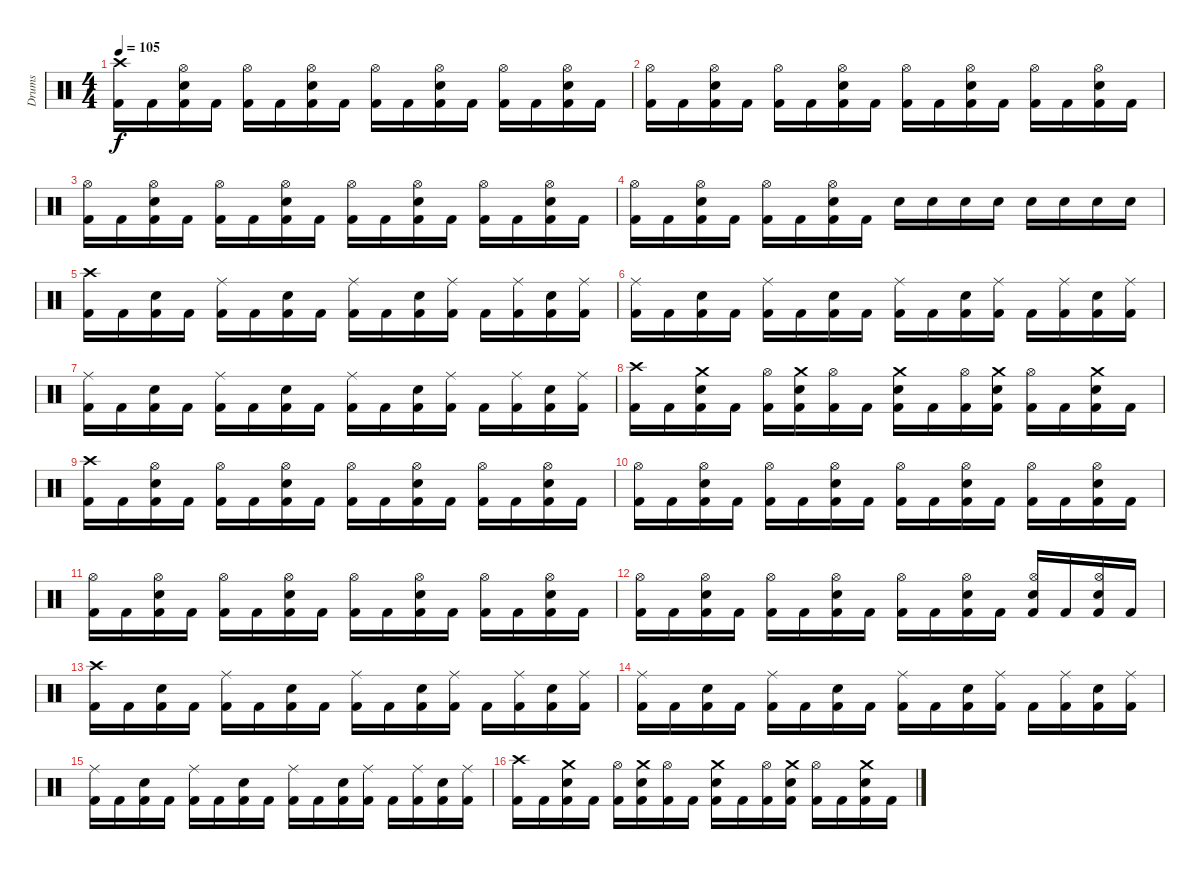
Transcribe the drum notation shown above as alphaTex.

\track ("Drums" "Drums") {instrument percussion}
\staff {score}
\articulation defaults
\ts (4 4)
\tempo 105
\clef neutral
\ks c
("Crash high (hit)" "Kick (hit) 2").16{dy f} "Kick (hit) 2".16 ("Hi-Hat (open)" "Electric Snare (hit)" "Kick (hit) 2").16 "Kick (hit) 2".16 ("Hi-Hat (open)" "Kick (hit) 2").16 "Kick (hit) 2".16 ("Hi-Hat (open)" "Electric Snare (hit)" "Kick (hit) 2").16 "Kick (hit) 2".16 ("Hi-Hat (open)" "Kick (hit) 2").16 "Kick (hit) 2".16 ("Hi-Hat (open)" "Electric Snare (hit)" "Kick (hit) 2").16 "Kick (hit) 2".16 ("Hi-Hat (open)" "Kick (hit) 2").16 "Kick (hit) 2".16 ("Hi-Hat (open)" "Electric Snare (hit)" "Kick (hit) 2").16 "Kick (hit) 2".16 |
("Hi-Hat (open)" "Kick (hit) 2").16 "Kick (hit) 2".16 ("Hi-Hat (open)" "Electric Snare (hit)" "Kick (hit) 2").16 "Kick (hit) 2".16 ("Hi-Hat (open)" "Kick (hit) 2").16 "Kick (hit) 2".16 ("Hi-Hat (open)" "Electric Snare (hit)" "Kick (hit) 2").16 "Kick (hit) 2".16 ("Hi-Hat (open)" "Kick (hit) 2").16 "Kick (hit) 2".16 ("Hi-Hat (open)" "Electric Snare (hit)" "Kick (hit) 2").16 "Kick (hit) 2".16 ("Hi-Hat (open)" "Kick (hit) 2").16 "Kick (hit) 2".16 ("Hi-Hat (open)" "Electric Snare (hit)" "Kick (hit) 2").16 "Kick (hit) 2".16 |
("Hi-Hat (open)" "Kick (hit) 2").16 "Kick (hit) 2".16 ("Hi-Hat (open)" "Electric Snare (hit)" "Kick (hit) 2").16 "Kick (hit) 2".16 ("Hi-Hat (open)" "Kick (hit) 2").16 "Kick (hit) 2".16 ("Hi-Hat (open)" "Electric Snare (hit)" "Kick (hit) 2").16 "Kick (hit) 2".16 ("Hi-Hat (open)" "Kick (hit) 2").16 "Kick (hit) 2".16 ("Hi-Hat (open)" "Electric Snare (hit)" "Kick (hit) 2").16 "Kick (hit) 2".16 ("Hi-Hat (open)" "Kick (hit) 2").16 "Kick (hit) 2".16 ("Hi-Hat (open)" "Electric Snare (hit)" "Kick (hit) 2").16 "Kick (hit) 2".16 |
("Hi-Hat (open)" "Kick (hit) 2").16 "Kick (hit) 2".16 ("Hi-Hat (open)" "Electric Snare (hit)" "Kick (hit) 2").16 "Kick (hit) 2".16 ("Hi-Hat (open)" "Kick (hit) 2").16 "Kick (hit) 2".16 ("Hi-Hat (open)" "Electric Snare (hit)" "Kick (hit) 2").16 "Kick (hit) 2".16 "Electric Snare (hit)".16 "Electric Snare (hit)".16 "Electric Snare (hit)".16 "Electric Snare (hit)".16 "Electric Snare (hit)".16 "Electric Snare (hit)".16 "Electric Snare (hit)".16 "Electric Snare (hit)".16 |
("Crash high (hit)" "Kick (hit) 2").16 "Kick (hit) 2".16 ("Electric Snare (hit)" "Kick (hit) 2").16 "Kick (hit) 2".16 ("Ride (middle)" "Kick (hit) 2").16 "Kick (hit) 2".16 ("Electric Snare (hit)" "Kick (hit) 2").16 "Kick (hit) 2".16 ("Ride (middle)" "Kick (hit) 2").16 "Kick (hit) 2".16 ("Electric Snare (hit)" "Kick (hit) 2").16 ("Ride (middle)" "Kick (hit) 2").16 "Kick (hit) 2".16 ("Ride (middle)" "Kick (hit) 2").16 ("Electric Snare (hit)" "Kick (hit) 2").16 ("Ride (middle)" "Kick (hit) 2").16 |
("Ride (middle)" "Kick (hit) 2").16 "Kick (hit) 2".16 ("Electric Snare (hit)" "Kick (hit) 2").16 "Kick (hit) 2".16 ("Ride (middle)" "Kick (hit) 2").16 "Kick (hit) 2".16 ("Electric Snare (hit)" "Kick (hit) 2").16 "Kick (hit) 2".16 ("Ride (middle)" "Kick (hit) 2").16 "Kick (hit) 2".16 ("Electric Snare (hit)" "Kick (hit) 2").16 ("Ride (middle)" "Kick (hit) 2").16 "Kick (hit) 2".16 ("Ride (middle)" "Kick (hit) 2").16 ("Electric Snare (hit)" "Kick (hit) 2").16 ("Ride (middle)" "Kick (hit) 2").16 |
("Ride (middle)" "Kick (hit) 2").16 "Kick (hit) 2".16 ("Electric Snare (hit)" "Kick (hit) 2").16 "Kick (hit) 2".16 ("Ride (middle)" "Kick (hit) 2").16 "Kick (hit) 2".16 ("Electric Snare (hit)" "Kick (hit) 2").16 "Kick (hit) 2".16 ("Ride (middle)" "Kick (hit) 2").16 "Kick (hit) 2".16 ("Electric Snare (hit)" "Kick (hit) 2").16 ("Ride (middle)" "Kick (hit) 2").16 "Kick (hit) 2".16 ("Ride (middle)" "Kick (hit) 2").16 ("Electric Snare (hit)" "Kick (hit) 2").16 ("Ride (middle)" "Kick (hit) 2").16 |
("Crash high (hit)" "Kick (hit) 2").16 "Kick (hit) 2".16 ("Crash medium (hit)" "Electric Snare (hit)" "Kick (hit) 2").16 "Kick (hit) 2".16 ("Hi-Hat (open)" "Kick (hit) 2").16 ("Crash medium (hit)" "Electric Snare (hit)" "Kick (hit) 2").16 ("Hi-Hat (open)" "Kick (hit) 2").16 "Kick (hit) 2".16 ("Crash medium (hit)" "Electric Snare (hit)" "Kick (hit) 2").16 "Kick (hit) 2".16 ("Hi-Hat (open)" "Kick (hit) 2").16 ("Crash medium (hit)" "Electric Snare (hit)" "Kick (hit) 2").16 ("Hi-Hat (open)" "Kick (hit) 2").16 "Kick (hit) 2".16 ("Crash medium (hit)" "Electric Snare (hit)" "Kick (hit) 2").16 "Kick (hit) 2".16 |
("Crash high (hit)" "Kick (hit) 2").16 "Kick (hit) 2".16 ("Hi-Hat (open)" "Electric Snare (hit)" "Kick (hit) 2").16 "Kick (hit) 2".16 ("Hi-Hat (open)" "Kick (hit) 2").16 "Kick (hit) 2".16 ("Hi-Hat (open)" "Electric Snare (hit)" "Kick (hit) 2").16 "Kick (hit) 2".16 ("Hi-Hat (open)" "Kick (hit) 2").16 "Kick (hit) 2".16 ("Hi-Hat (open)" "Electric Snare (hit)" "Kick (hit) 2").16 "Kick (hit) 2".16 ("Hi-Hat (open)" "Kick (hit) 2").16 "Kick (hit) 2".16 ("Hi-Hat (open)" "Electric Snare (hit)" "Kick (hit) 2").16 "Kick (hit) 2".16 |
("Hi-Hat (open)" "Kick (hit) 2").16 "Kick (hit) 2".16 ("Hi-Hat (open)" "Electric Snare (hit)" "Kick (hit) 2").16 "Kick (hit) 2".16 ("Hi-Hat (open)" "Kick (hit) 2").16 "Kick (hit) 2".16 ("Hi-Hat (open)" "Electric Snare (hit)" "Kick (hit) 2").16 "Kick (hit) 2".16 ("Hi-Hat (open)" "Kick (hit) 2").16 "Kick (hit) 2".16 ("Hi-Hat (open)" "Electric Snare (hit)" "Kick (hit) 2").16 "Kick (hit) 2".16 ("Hi-Hat (open)" "Kick (hit) 2").16 "Kick (hit) 2".16 ("Hi-Hat (open)" "Electric Snare (hit)" "Kick (hit) 2").16 "Kick (hit) 2".16 |
("Hi-Hat (open)" "Kick (hit) 2").16 "Kick (hit) 2".16 ("Hi-Hat (open)" "Electric Snare (hit)" "Kick (hit) 2").16 "Kick (hit) 2".16 ("Hi-Hat (open)" "Kick (hit) 2").16 "Kick (hit) 2".16 ("Hi-Hat (open)" "Electric Snare (hit)" "Kick (hit) 2").16 "Kick (hit) 2".16 ("Hi-Hat (open)" "Kick (hit) 2").16 "Kick (hit) 2".16 ("Hi-Hat (open)" "Electric Snare (hit)" "Kick (hit) 2").16 "Kick (hit) 2".16 ("Hi-Hat (open)" "Kick (hit) 2").16 "Kick (hit) 2".16 ("Hi-Hat (open)" "Electric Snare (hit)" "Kick (hit) 2").16 "Kick (hit) 2".16 |
("Hi-Hat (open)" "Kick (hit) 2").16 "Kick (hit) 2".16 ("Hi-Hat (open)" "Electric Snare (hit)" "Kick (hit) 2").16 "Kick (hit) 2".16 ("Hi-Hat (open)" "Kick (hit) 2").16 "Kick (hit) 2".16 ("Hi-Hat (open)" "Electric Snare (hit)" "Kick (hit) 2").16 "Kick (hit) 2".16 ("Hi-Hat (open)" "Kick (hit) 2").16 "Kick (hit) 2".16 ("Hi-Hat (open)" "Electric Snare (hit)" "Kick (hit) 2").16 "Kick (hit) 2".16 ("Hi-Hat (open)" "Electric Snare (hit)" "Kick (hit) 2").16 "Kick (hit) 2".16 ("Hi-Hat (open)" "Electric Snare (hit)" "Kick (hit) 2").16 "Kick (hit) 2".16 |
("Crash high (hit)" "Kick (hit) 2").16 "Kick (hit) 2".16 ("Electric Snare (hit)" "Kick (hit) 2").16 "Kick (hit) 2".16 ("Ride (middle)" "Kick (hit) 2").16 "Kick (hit) 2".16 ("Electric Snare (hit)" "Kick (hit) 2").16 "Kick (hit) 2".16 ("Ride (middle)" "Kick (hit) 2").16 "Kick (hit) 2".16 ("Electric Snare (hit)" "Kick (hit) 2").16 ("Ride (middle)" "Kick (hit) 2").16 "Kick (hit) 2".16 ("Ride (middle)" "Kick (hit) 2").16 ("Electric Snare (hit)" "Kick (hit) 2").16 ("Ride (middle)" "Kick (hit) 2").16 |
("Ride (middle)" "Kick (hit) 2").16 "Kick (hit) 2".16 ("Electric Snare (hit)" "Kick (hit) 2").16 "Kick (hit) 2".16 ("Ride (middle)" "Kick (hit) 2").16 "Kick (hit) 2".16 ("Electric Snare (hit)" "Kick (hit) 2").16 "Kick (hit) 2".16 ("Ride (middle)" "Kick (hit) 2").16 "Kick (hit) 2".16 ("Electric Snare (hit)" "Kick (hit) 2").16 ("Ride (middle)" "Kick (hit) 2").16 "Kick (hit) 2".16 ("Ride (middle)" "Kick (hit) 2").16 ("Electric Snare (hit)" "Kick (hit) 2").16 ("Ride (middle)" "Kick (hit) 2").16 |
("Ride (middle)" "Kick (hit) 2").16 "Kick (hit) 2".16 ("Electric Snare (hit)" "Kick (hit) 2").16 "Kick (hit) 2".16 ("Ride (middle)" "Kick (hit) 2").16 "Kick (hit) 2".16 ("Electric Snare (hit)" "Kick (hit) 2").16 "Kick (hit) 2".16 ("Ride (middle)" "Kick (hit) 2").16 "Kick (hit) 2".16 ("Electric Snare (hit)" "Kick (hit) 2").16 ("Ride (middle)" "Kick (hit) 2").16 "Kick (hit) 2".16 ("Ride (middle)" "Kick (hit) 2").16 ("Electric Snare (hit)" "Kick (hit) 2").16 ("Ride (middle)" "Kick (hit) 2").16 |
("Crash high (hit)" "Kick (hit) 2").16 "Kick (hit) 2".16 ("Crash medium (hit)" "Electric Snare (hit)" "Kick (hit) 2").16 "Kick (hit) 2".16 ("Hi-Hat (open)" "Kick (hit) 2").16 ("Crash medium (hit)" "Electric Snare (hit)" "Kick (hit) 2").16 ("Hi-Hat (open)" "Kick (hit) 2").16 "Kick (hit) 2".16 ("Crash medium (hit)" "Electric Snare (hit)" "Kick (hit) 2").16 "Kick (hit) 2".16 ("Hi-Hat (open)" "Kick (hit) 2").16 ("Crash medium (hit)" "Electric Snare (hit)" "Kick (hit) 2").16 ("Hi-Hat (open)" "Kick (hit) 2").16 "Kick (hit) 2".16 ("Crash medium (hit)" "Electric Snare (hit)" "Kick (hit) 2").16 "Kick (hit) 2".16
